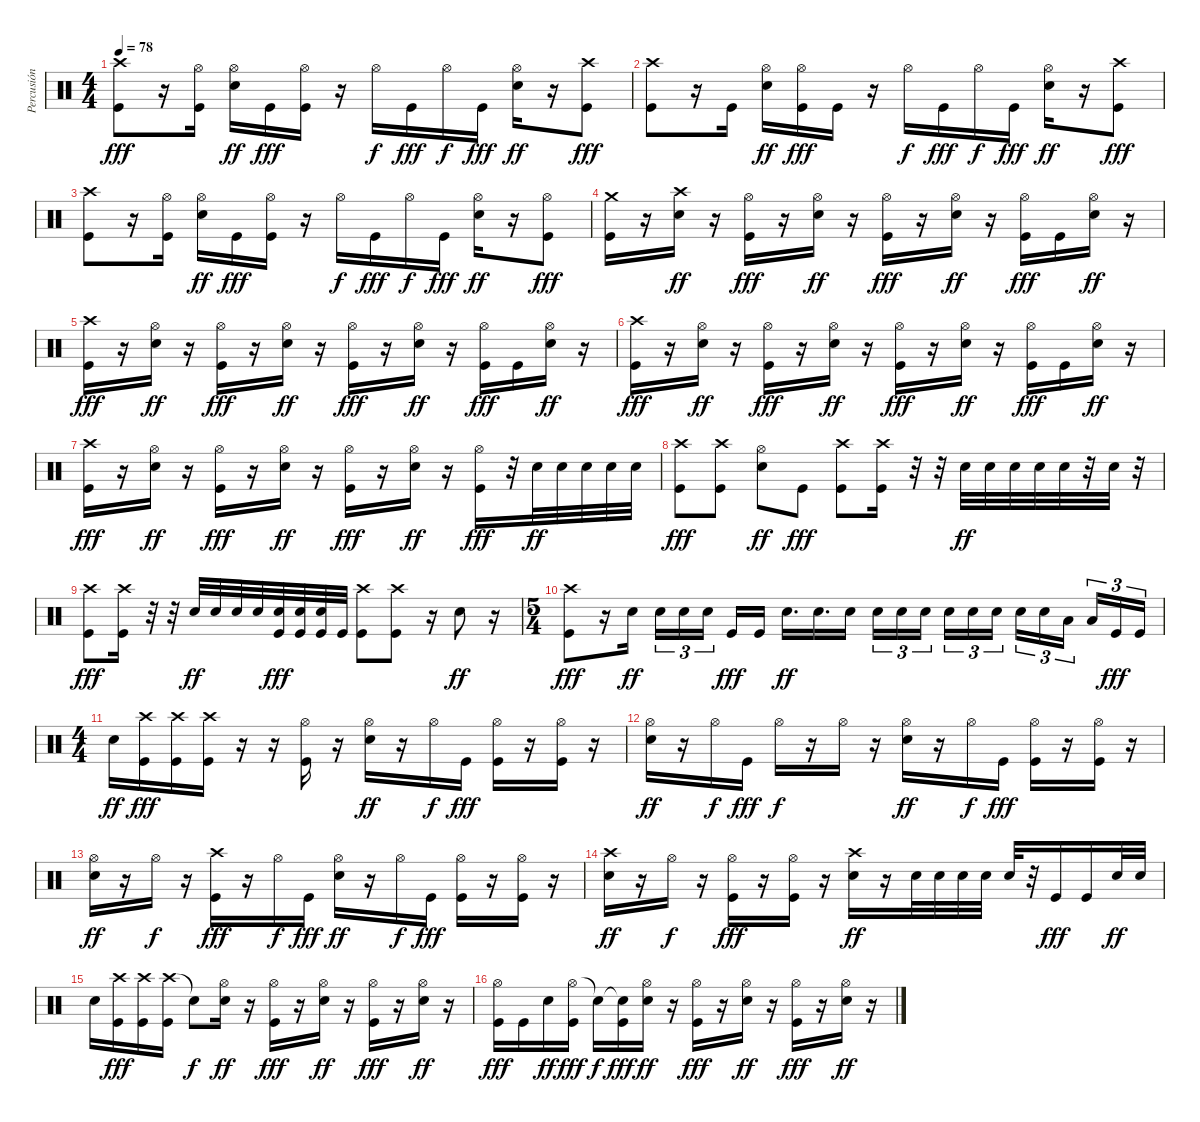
\track ("Percusión" "Percusión") {instrument percussion}
\staff {score}
\articulation defaults
\ts (4 4)
\tempo 78
\clef neutral
\ks c
("Crash high (hit)" "Kick (hit)").8{dy fff} r.16 ("Hi-Hat (open)" "Kick (hit)").16 ("Hi-Hat (open)" "Snare (hit) 2").16{dy ff} "Kick (hit)".16{dy fff} ("Hi-Hat (open)" "Kick (hit)").16 r.16 "Hi-Hat (open)".16{dy f} "Kick (hit)".16{dy fff} "Hi-Hat (open)".16{dy f} "Kick (hit)".16{dy fff} ("Hi-Hat (open)" "Snare (hit) 2").16{dy ff} r.16 ("Crash high (hit)" "Kick (hit)").8{dy fff} |
("Crash high (hit)" "Kick (hit)").8 r.16 "Kick (hit)".16 ("Hi-Hat (open)" "Snare (hit) 2").16{dy ff} ("Hi-Hat (open)" "Kick (hit)").16{dy fff} "Kick (hit)".16 r.16 "Hi-Hat (open)".16{dy f} "Kick (hit)".16{dy fff} "Hi-Hat (open)".16{dy f} "Kick (hit)".16{dy fff} ("Hi-Hat (open)" "Snare (hit) 2").16{dy ff} r.16 ("Crash high (hit)" "Kick (hit)").8{dy fff} |
("Crash high (hit)" "Kick (hit)").8 r.16 ("Hi-Hat (open)" "Kick (hit)").16 ("Hi-Hat (open)" "Snare (hit) 2").16{dy ff} "Kick (hit)".16{dy fff} ("Hi-Hat (open)" "Kick (hit)").16 r.16 "Hi-Hat (open)".16{dy f} "Kick (hit)".16{dy fff} "Hi-Hat (open)".16{dy f} "Kick (hit)".16{dy fff} ("Hi-Hat (open)" "Snare (hit) 2").16{dy ff} r.16 ("Hi-Hat (open)" "Kick (hit)").8{dy fff} |
("Crash medium (hit)" "Kick (hit)").16 r.16 ("Crash high (hit)" "Snare (hit) 2").16{dy ff} r.16 ("Hi-Hat (open)" "Kick (hit)").16{dy fff} r.16 ("Hi-Hat (open)" "Snare (hit) 2").16{dy ff} r.16 ("Hi-Hat (open)" "Kick (hit)").16{dy fff} r.16 ("Hi-Hat (open)" "Snare (hit) 2").16{dy ff} r.16 ("Hi-Hat (open)" "Kick (hit)").16{dy fff} "Kick (hit)".16 ("Hi-Hat (open)" "Snare (hit) 2").16{dy ff} r.16 |
("Crash high (hit)" "Kick (hit)").16{dy fff} r.16 ("Hi-Hat (open)" "Snare (hit) 2").16{dy ff} r.16 ("Hi-Hat (open)" "Kick (hit)").16{dy fff} r.16 ("Hi-Hat (open)" "Snare (hit) 2").16{dy ff} r.16 ("Hi-Hat (open)" "Kick (hit)").16{dy fff} r.16 ("Hi-Hat (open)" "Snare (hit) 2").16{dy ff} r.16 ("Hi-Hat (open)" "Kick (hit)").16{dy fff} "Kick (hit)".16 ("Hi-Hat (open)" "Snare (hit) 2").16{dy ff} r.16 |
("Crash high (hit)" "Kick (hit)").16{dy fff} r.16 ("Hi-Hat (open)" "Snare (hit) 2").16{dy ff} r.16 ("Hi-Hat (open)" "Kick (hit)").16{dy fff} r.16 ("Hi-Hat (open)" "Snare (hit) 2").16{dy ff} r.16 ("Hi-Hat (open)" "Kick (hit)").16{dy fff} r.16 ("Hi-Hat (open)" "Snare (hit) 2").16{dy ff} r.16 ("Hi-Hat (open)" "Kick (hit)").16{dy fff} "Kick (hit)".16 ("Hi-Hat (open)" "Snare (hit) 2").16{dy ff} r.16 |
("Crash high (hit)" "Kick (hit)").16{dy fff} r.16 ("Hi-Hat (open)" "Snare (hit) 2").16{dy ff} r.16 ("Hi-Hat (open)" "Kick (hit)").16{dy fff} r.16 ("Hi-Hat (open)" "Snare (hit) 2").16{dy ff} r.16 ("Hi-Hat (open)" "Kick (hit)").16{dy fff} r.16 ("Hi-Hat (open)" "Snare (hit) 2").16{dy ff} r.16 ("Hi-Hat (open)" "Kick (hit)").16{dy fff} r.32 "Snare (hit) 2".32{dy ff} "Snare (hit) 2".32 "Snare (hit) 2".32 "Snare (hit) 2".32 "Snare (hit) 2".32 |
("Crash high (hit)" "Kick (hit)").8{dy fff} ("Crash high (hit)" "Kick (hit)").8 ("Hi-Hat (open)" "Snare (hit) 2").8{dy ff} "Kick (hit)".8{dy fff} ("Crash high (hit)" "Kick (hit)").8 ("Crash high (hit)" "Kick (hit)").16 r.32 r.32 "Snare (hit) 2".32{dy ff} "Snare (hit) 2".32 "Snare (hit) 2".32 "Snare (hit) 2".32 "Snare (hit) 2".32 r.32 "Snare (hit) 2".32 r.32 |
("Crash high (hit)" "Kick (hit)").8{dy fff} ("Crash high (hit)" "Kick (hit)").16 r.32 r.32 "Snare (hit) 2".32{dy ff} "Snare (hit) 2".32 "Snare (hit) 2".32 "Snare (hit) 2".32 ("Snare (hit) 2" "Kick (hit)").32{dy fff} ("Snare (hit) 2" "Kick (hit)").32 ("Snare (hit) 2" "Kick (hit)").32 "Kick (hit)".32 ("Crash high (hit)" "Kick (hit)").8 ("Crash high (hit)" "Kick (hit)").8 r.16 "Snare (hit) 2".8{dy ff} r.16 |
\ts (5 4)
("Crash high (hit)" "Kick (hit)").8{dy fff} r.16 "Snare (hit) 2".16{dy ff} "Snare (hit) 2".16{tu (3 2)} "Snare (hit) 2".16{tu (3 2)} "Snare (hit) 2".16{tu (3 2) beam splitsecondary} "Kick (hit)".16{dy fff} "Kick (hit)".16 "Snare (hit) 2".16{d dy ff} "Snare (hit) 2".16{d} "Snare (hit) 2".16 "Snare (hit) 2".16{tu (3 2)} "Snare (hit) 2".16{tu (3 2)} "Snare (hit) 2".16{tu (3 2) beam splitsecondary} "Snare (hit) 2".16{tu (3 2)} "Snare (hit) 2".16{tu (3 2)} "Snare (hit) 2".16{tu (3 2)} "Snare (hit) 2".16{tu (3 2)} "Snare (hit) 2".16{tu (3 2)} "Low Tom (hit)".16{tu (3 2) beam splitsecondary} "Low Tom (hit)".16{tu (3 2)} "Kick (hit)".16{tu (3 2) dy fff} "Kick (hit)".16{tu (3 2)} |
\ts (4 4)
"Snare (hit) 2".16{dy ff} ("Crash high (hit)" "Kick (hit)").16{dy fff} ("Crash high (hit)" "Kick (hit)").16 ("Crash high (hit)" "Kick (hit)").16 r.16 r.16 ("Hi-Hat (open)" "Kick (hit)").16 r.16 ("Hi-Hat (open)" "Snare (hit) 2").16{dy ff} r.16 "Hi-Hat (open)".16{dy f} "Kick (hit)".16{dy fff} ("Hi-Hat (open)" "Kick (hit)").16 r.16 ("Hi-Hat (open)" "Kick (hit)").16 r.16 |
("Hi-Hat (open)" "Snare (hit) 2").16{dy ff} r.16 "Hi-Hat (open)".16{dy f} "Kick (hit)".16{dy fff} "Hi-Hat (open)".16{dy f} r.16 "Hi-Hat (open)".16 r.16 ("Hi-Hat (open)" "Snare (hit) 2").16{dy ff} r.16 "Hi-Hat (open)".16{dy f} "Kick (hit)".16{dy fff} ("Hi-Hat (open)" "Kick (hit)").16 r.16 ("Hi-Hat (open)" "Kick (hit)").16 r.16 |
("Hi-Hat (open)" "Snare (hit) 2").16{dy ff} r.16 "Hi-Hat (open)".16{dy f} r.16 ("Crash high (hit)" "Kick (hit)").16{dy fff} r.16 "Hi-Hat (open)".16{dy f} "Kick (hit)".16{dy fff} ("Hi-Hat (open)" "Snare (hit) 2").16{dy ff} r.16 "Hi-Hat (open)".16{dy f} "Kick (hit)".16{dy fff} ("Hi-Hat (open)" "Kick (hit)").16 r.16 ("Hi-Hat (open)" "Kick (hit)").16 r.16 |
("Crash high (hit)" "Snare (hit) 2").16{dy ff} r.16 "Hi-Hat (open)".16{dy f} r.16 ("Hi-Hat (open)" "Kick (hit)").16{dy fff} r.16 ("Hi-Hat (open)" "Kick (hit)").16 r.16 ("Crash high (hit)" "Snare (hit) 2").16{dy ff} r.16 "Snare (hit) 2".32 "Snare (hit) 2".32 "Snare (hit) 2".32 "Snare (hit) 2".32 "Snare (hit) 2".32 r.32 "Kick (hit)".16{dy fff} "Kick (hit)".16 "Snare (hit) 2".32{dy ff} "Snare (hit) 2".32 |
"Snare (hit) 2".16 ("Crash high (hit)" "Kick (hit)").16{dy fff} ("Crash high (hit)" "Kick (hit)").16 ("Crash high (hit)" "Kick (hit)").16 "Snare (hit)"{t}.8{dy f} ("Hi-Hat (open)" "Snare (hit) 2").16{dy ff} r.16 ("Hi-Hat (open)" "Kick (hit)").16{dy fff} r.16 ("Hi-Hat (open)" "Snare (hit) 2").16{dy ff} r.16 ("Hi-Hat (open)" "Kick (hit)").16{dy fff} r.16 ("Hi-Hat (open)" "Snare (hit) 2").16{dy ff} r.16 |
("Hi-Hat (open)" "Kick (hit)").16{dy fff} "Kick (hit)".16 "Snare (hit) 2".16{dy ff} ("Hi-Hat (open)" "Kick (hit)").16{dy fff} "Snare (hit)"{t}.16{dy f} ("Snare (hit)"{t} "Kick (hit)").16{dy fff} ("Hi-Hat (open)" "Snare (hit) 2").16{dy ff} r.16 ("Hi-Hat (open)" "Kick (hit)").16{dy fff} r.16 ("Hi-Hat (open)" "Snare (hit) 2").16{dy ff} r.16 ("Hi-Hat (open)" "Kick (hit)").16{dy fff} r.16 ("Hi-Hat (open)" "Snare (hit) 2").16{dy ff} r.16
